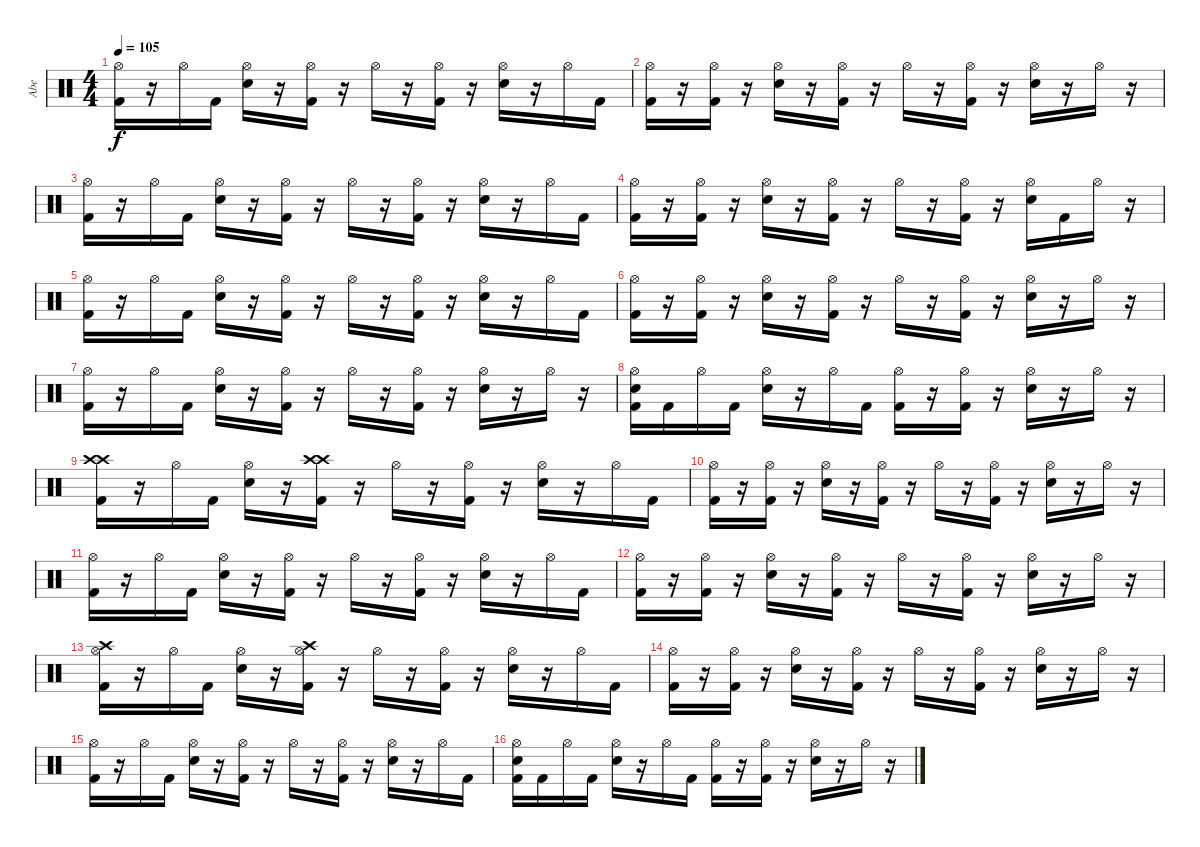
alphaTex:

\track ("Abe" "Abe") {instrument percussion}
\staff {score}
\articulation defaults
\ts (4 4)
\tempo 105
\clef neutral
\ks c
("Hi-Hat (open)" "Kick (hit) 2").16{dy f} r.16 "Hi-Hat (open)".16 "Kick (hit) 2".16 ("Hi-Hat (open)" "Electric Snare (hit)").16 r.16 ("Hi-Hat (open)" "Kick (hit) 2").16 r.16 "Hi-Hat (open)".16 r.16 ("Hi-Hat (open)" "Kick (hit) 2").16 r.16 ("Hi-Hat (open)" "Electric Snare (hit)").16 r.16 "Hi-Hat (open)".16 "Kick (hit) 2".16 |
("Hi-Hat (open)" "Kick (hit) 2").16 r.16 ("Hi-Hat (open)" "Kick (hit) 2").16 r.16 ("Hi-Hat (open)" "Electric Snare (hit)").16 r.16 ("Hi-Hat (open)" "Kick (hit) 2").16 r.16 "Hi-Hat (open)".16 r.16 ("Hi-Hat (open)" "Kick (hit) 2").16 r.16 ("Hi-Hat (open)" "Electric Snare (hit)").16 r.16 "Hi-Hat (open)".16 r.16 |
("Hi-Hat (open)" "Kick (hit) 2").16 r.16 "Hi-Hat (open)".16 "Kick (hit) 2".16 ("Hi-Hat (open)" "Electric Snare (hit)").16 r.16 ("Hi-Hat (open)" "Kick (hit) 2").16 r.16 "Hi-Hat (open)".16 r.16 ("Hi-Hat (open)" "Kick (hit) 2").16 r.16 ("Hi-Hat (open)" "Electric Snare (hit)").16 r.16 "Hi-Hat (open)".16 "Kick (hit) 2".16 |
("Hi-Hat (open)" "Kick (hit) 2").16 r.16 ("Hi-Hat (open)" "Kick (hit) 2").16 r.16 ("Hi-Hat (open)" "Electric Snare (hit)").16 r.16 ("Hi-Hat (open)" "Kick (hit) 2").16 r.16 "Hi-Hat (open)".16 r.16 ("Hi-Hat (open)" "Kick (hit) 2").16 r.16 ("Hi-Hat (open)" "Electric Snare (hit)").16 "Kick (hit) 2".16 "Hi-Hat (open)".16 r.16 |
("Hi-Hat (open)" "Kick (hit) 2").16 r.16 "Hi-Hat (open)".16 "Kick (hit) 2".16 ("Hi-Hat (open)" "Electric Snare (hit)").16 r.16 ("Hi-Hat (open)" "Kick (hit) 2").16 r.16 "Hi-Hat (open)".16 r.16 ("Hi-Hat (open)" "Kick (hit) 2").16 r.16 ("Hi-Hat (open)" "Electric Snare (hit)").16 r.16 "Hi-Hat (open)".16 "Kick (hit) 2".16 |
("Hi-Hat (open)" "Kick (hit) 2").16 r.16 ("Hi-Hat (open)" "Kick (hit) 2").16 r.16 ("Hi-Hat (open)" "Electric Snare (hit)").16 r.16 ("Hi-Hat (open)" "Kick (hit) 2").16 r.16 "Hi-Hat (open)".16 r.16 ("Hi-Hat (open)" "Kick (hit) 2").16 r.16 ("Hi-Hat (open)" "Electric Snare (hit)").16 r.16 "Hi-Hat (open)".16 r.16 |
("Hi-Hat (open)" "Kick (hit) 2").16 r.16 "Hi-Hat (open)".16 "Kick (hit) 2".16 ("Hi-Hat (open)" "Electric Snare (hit)").16 r.16 ("Hi-Hat (open)" "Kick (hit) 2").16 r.16 "Hi-Hat (open)".16 r.16 ("Hi-Hat (open)" "Kick (hit) 2").16 r.16 ("Hi-Hat (open)" "Electric Snare (hit)").16 r.16 "Hi-Hat (open)".16 r.16 |
("Electric Snare (hit)" "Hi-Hat (open)" "Kick (hit) 2").16 "Kick (hit) 2".16 "Hi-Hat (open)".16 "Kick (hit) 2".16 ("Hi-Hat (open)" "Electric Snare (hit)").16 r.16 "Hi-Hat (open)".16 "Kick (hit) 2".16 ("Hi-Hat (open)" "Kick (hit) 2").16 r.16 ("Hi-Hat (open)" "Kick (hit) 2").16 r.16 ("Hi-Hat (open)" "Electric Snare (hit)").16 r.16 "Hi-Hat (open)".16 r.16 |
("Crash high (hit)" "Crash high (hit)" "Kick (hit) 2").16 r.16 "Hi-Hat (open)".16 "Kick (hit) 2".16 ("Hi-Hat (open)" "Electric Snare (hit)").16 r.16 ("Crash high (hit)" "Crash high (hit)" "Kick (hit) 2").16 r.16 "Hi-Hat (open)".16 r.16 ("Hi-Hat (open)" "Kick (hit) 2").16 r.16 ("Hi-Hat (open)" "Electric Snare (hit)").16 r.16 "Hi-Hat (open)".16 "Kick (hit) 2".16 |
("Hi-Hat (open)" "Kick (hit) 2").16 r.16 ("Hi-Hat (open)" "Kick (hit) 2").16 r.16 ("Hi-Hat (open)" "Electric Snare (hit)").16 r.16 ("Hi-Hat (open)" "Kick (hit) 2").16 r.16 "Hi-Hat (open)".16 r.16 ("Hi-Hat (open)" "Kick (hit) 2").16 r.16 ("Hi-Hat (open)" "Electric Snare (hit)").16 r.16 "Hi-Hat (open)".16 r.16 |
("Hi-Hat (open)" "Kick (hit) 2").16 r.16 "Hi-Hat (open)".16 "Kick (hit) 2".16 ("Hi-Hat (open)" "Electric Snare (hit)").16 r.16 ("Hi-Hat (open)" "Kick (hit) 2").16 r.16 "Hi-Hat (open)".16 r.16 ("Hi-Hat (open)" "Kick (hit) 2").16 r.16 ("Hi-Hat (open)" "Electric Snare (hit)").16 r.16 "Hi-Hat (open)".16 "Kick (hit) 2".16 |
("Hi-Hat (open)" "Kick (hit) 2").16 r.16 ("Hi-Hat (open)" "Kick (hit) 2").16 r.16 ("Hi-Hat (open)" "Electric Snare (hit)").16 r.16 ("Hi-Hat (open)" "Kick (hit) 2").16 r.16 "Hi-Hat (open)".16 r.16 ("Hi-Hat (open)" "Kick (hit) 2").16 r.16 ("Hi-Hat (open)" "Electric Snare (hit)").16 r.16 "Hi-Hat (open)".16 r.16 |
("Crash high (hit)" "Hi-Hat (open)" "Kick (hit) 2").16 r.16 "Hi-Hat (open)".16 "Kick (hit) 2".16 ("Hi-Hat (open)" "Electric Snare (hit)").16 r.16 ("Crash high (hit)" "Hi-Hat (open)" "Kick (hit) 2").16 r.16 "Hi-Hat (open)".16 r.16 ("Hi-Hat (open)" "Kick (hit) 2").16 r.16 ("Hi-Hat (open)" "Electric Snare (hit)").16 r.16 "Hi-Hat (open)".16 "Kick (hit) 2".16 |
("Hi-Hat (open)" "Kick (hit) 2").16 r.16 ("Hi-Hat (open)" "Kick (hit) 2").16 r.16 ("Hi-Hat (open)" "Electric Snare (hit)").16 r.16 ("Hi-Hat (open)" "Kick (hit) 2").16 r.16 "Hi-Hat (open)".16 r.16 ("Hi-Hat (open)" "Kick (hit) 2").16 r.16 ("Hi-Hat (open)" "Electric Snare (hit)").16 r.16 "Hi-Hat (open)".16 r.16 |
("Hi-Hat (open)" "Kick (hit) 2").16 r.16 "Hi-Hat (open)".16 "Kick (hit) 2".16 ("Hi-Hat (open)" "Electric Snare (hit)").16 r.16 ("Hi-Hat (open)" "Kick (hit) 2").16 r.16 "Hi-Hat (open)".16 r.16 ("Hi-Hat (open)" "Kick (hit) 2").16 r.16 ("Hi-Hat (open)" "Electric Snare (hit)").16 r.16 "Hi-Hat (open)".16 "Kick (hit) 2".16 |
("Electric Snare (hit)" "Hi-Hat (open)" "Kick (hit) 2").16 "Kick (hit) 2".16 "Hi-Hat (open)".16 "Kick (hit) 2".16 ("Hi-Hat (open)" "Electric Snare (hit)").16 r.16 "Hi-Hat (open)".16 "Kick (hit) 2".16 ("Hi-Hat (open)" "Kick (hit) 2").16 r.16 ("Hi-Hat (open)" "Kick (hit) 2").16 r.16 ("Hi-Hat (open)" "Electric Snare (hit)").16 r.16 "Hi-Hat (open)".16 r.16
